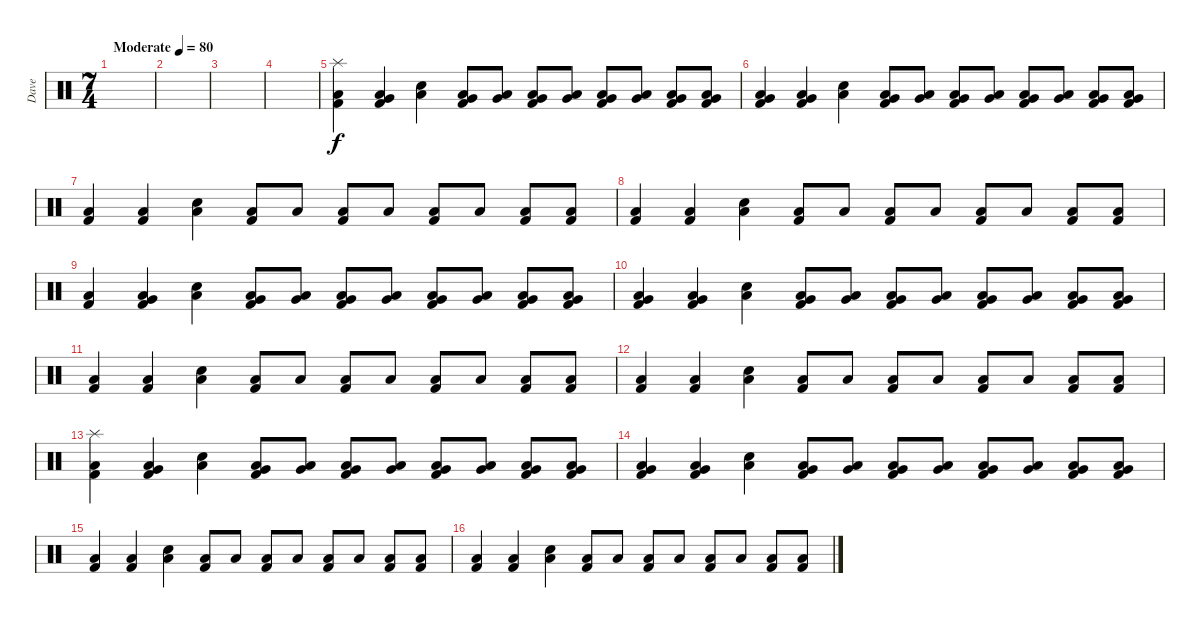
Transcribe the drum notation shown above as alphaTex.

\track ("Dave" "Dave") {instrument percussion}
\staff {score}
\articulation defaults
\ts (7 4)
\tempo (80 "Moderate")
\clef neutral
\ks c
|
|
|
|
("Splash (hit)" "Low Floor Tom (hit)" "Kick (hit) 2").4 ("Very Low Tom (hit)" "Low Floor Tom (hit)" "Kick (hit) 2").4 ("Low Floor Tom (hit)" "Electric Snare (hit)").4 ("Very Low Tom (hit)" "Low Floor Tom (hit)" "Kick (hit) 2").8 ("Very Low Tom (hit)" "Low Floor Tom (hit)").8 ("Very Low Tom (hit)" "Low Floor Tom (hit)" "Kick (hit) 2").8 ("Very Low Tom (hit)" "Low Floor Tom (hit)").8 ("Very Low Tom (hit)" "Low Floor Tom (hit)" "Kick (hit) 2").8 ("Very Low Tom (hit)" "Low Floor Tom (hit)").8 ("Very Low Tom (hit)" "Low Floor Tom (hit)" "Kick (hit) 2").8 ("Very Low Tom (hit)" "Low Floor Tom (hit)" "Kick (hit) 2").8 |
("Very Low Tom (hit)" "Low Floor Tom (hit)" "Kick (hit) 2").4 ("Very Low Tom (hit)" "Low Floor Tom (hit)" "Kick (hit) 2").4 ("Low Floor Tom (hit)" "Electric Snare (hit)").4 ("Very Low Tom (hit)" "Low Floor Tom (hit)" "Kick (hit) 2").8 ("Very Low Tom (hit)" "Low Floor Tom (hit)").8 ("Very Low Tom (hit)" "Low Floor Tom (hit)" "Kick (hit) 2").8 ("Very Low Tom (hit)" "Low Floor Tom (hit)").8 ("Very Low Tom (hit)" "Low Floor Tom (hit)" "Kick (hit) 2").8 ("Very Low Tom (hit)" "Low Floor Tom (hit)").8 ("Very Low Tom (hit)" "Low Floor Tom (hit)" "Kick (hit) 2").8 ("Very Low Tom (hit)" "Low Floor Tom (hit)" "Kick (hit) 2").8 |
("Low Floor Tom (hit)" "Kick (hit) 2").4 ("Low Floor Tom (hit)" "Kick (hit) 2").4 ("Low Floor Tom (hit)" "Electric Snare (hit)").4 ("Low Floor Tom (hit)" "Kick (hit) 2").8 "Low Floor Tom (hit)".8 ("Low Floor Tom (hit)" "Kick (hit) 2").8 "Low Floor Tom (hit)".8 ("Low Floor Tom (hit)" "Kick (hit) 2").8 "Low Floor Tom (hit)".8 ("Low Floor Tom (hit)" "Kick (hit) 2").8 ("Low Floor Tom (hit)" "Kick (hit) 2").8 |
("Low Floor Tom (hit)" "Kick (hit) 2").4 ("Low Floor Tom (hit)" "Kick (hit) 2").4 ("Low Floor Tom (hit)" "Electric Snare (hit)").4 ("Low Floor Tom (hit)" "Kick (hit) 2").8 "Low Floor Tom (hit)".8 ("Low Floor Tom (hit)" "Kick (hit) 2").8 "Low Floor Tom (hit)".8 ("Low Floor Tom (hit)" "Kick (hit) 2").8 "Low Floor Tom (hit)".8 ("Low Floor Tom (hit)" "Kick (hit) 2").8 ("Low Floor Tom (hit)" "Kick (hit) 2").8 |
("Low Floor Tom (hit)" "Kick (hit) 2").4 ("Very Low Tom (hit)" "Low Floor Tom (hit)" "Kick (hit) 2").4 ("Low Floor Tom (hit)" "Electric Snare (hit)").4 ("Very Low Tom (hit)" "Low Floor Tom (hit)" "Kick (hit) 2").8 ("Very Low Tom (hit)" "Low Floor Tom (hit)").8 ("Very Low Tom (hit)" "Low Floor Tom (hit)" "Kick (hit) 2").8 ("Very Low Tom (hit)" "Low Floor Tom (hit)").8 ("Very Low Tom (hit)" "Low Floor Tom (hit)" "Kick (hit) 2").8 ("Very Low Tom (hit)" "Low Floor Tom (hit)").8 ("Very Low Tom (hit)" "Low Floor Tom (hit)" "Kick (hit) 2").8 ("Very Low Tom (hit)" "Low Floor Tom (hit)" "Kick (hit) 2").8 |
("Very Low Tom (hit)" "Low Floor Tom (hit)" "Kick (hit) 2").4 ("Very Low Tom (hit)" "Low Floor Tom (hit)" "Kick (hit) 2").4 ("Low Floor Tom (hit)" "Electric Snare (hit)").4 ("Very Low Tom (hit)" "Low Floor Tom (hit)" "Kick (hit) 2").8 ("Very Low Tom (hit)" "Low Floor Tom (hit)").8 ("Very Low Tom (hit)" "Low Floor Tom (hit)" "Kick (hit) 2").8 ("Very Low Tom (hit)" "Low Floor Tom (hit)").8 ("Very Low Tom (hit)" "Low Floor Tom (hit)" "Kick (hit) 2").8 ("Very Low Tom (hit)" "Low Floor Tom (hit)").8 ("Very Low Tom (hit)" "Low Floor Tom (hit)" "Kick (hit) 2").8 ("Very Low Tom (hit)" "Low Floor Tom (hit)" "Kick (hit) 2").8 |
("Low Floor Tom (hit)" "Kick (hit) 2").4 ("Low Floor Tom (hit)" "Kick (hit) 2").4 ("Low Floor Tom (hit)" "Electric Snare (hit)").4 ("Low Floor Tom (hit)" "Kick (hit) 2").8 "Low Floor Tom (hit)".8 ("Low Floor Tom (hit)" "Kick (hit) 2").8 "Low Floor Tom (hit)".8 ("Low Floor Tom (hit)" "Kick (hit) 2").8 "Low Floor Tom (hit)".8 ("Low Floor Tom (hit)" "Kick (hit) 2").8 ("Low Floor Tom (hit)" "Kick (hit) 2").8 |
("Low Floor Tom (hit)" "Kick (hit) 2").4 ("Low Floor Tom (hit)" "Kick (hit) 2").4 ("Low Floor Tom (hit)" "Electric Snare (hit)").4 ("Low Floor Tom (hit)" "Kick (hit) 2").8 "Low Floor Tom (hit)".8 ("Low Floor Tom (hit)" "Kick (hit) 2").8 "Low Floor Tom (hit)".8 ("Low Floor Tom (hit)" "Kick (hit) 2").8 "Low Floor Tom (hit)".8 ("Low Floor Tom (hit)" "Kick (hit) 2").8 ("Low Floor Tom (hit)" "Kick (hit) 2").8 |
("Splash (hit)" "Low Floor Tom (hit)" "Kick (hit) 2").4 ("Very Low Tom (hit)" "Low Floor Tom (hit)" "Kick (hit) 2").4 ("Low Floor Tom (hit)" "Electric Snare (hit)").4 ("Very Low Tom (hit)" "Low Floor Tom (hit)" "Kick (hit) 2").8 ("Very Low Tom (hit)" "Low Floor Tom (hit)").8 ("Very Low Tom (hit)" "Low Floor Tom (hit)" "Kick (hit) 2").8 ("Very Low Tom (hit)" "Low Floor Tom (hit)").8 ("Very Low Tom (hit)" "Low Floor Tom (hit)" "Kick (hit) 2").8 ("Very Low Tom (hit)" "Low Floor Tom (hit)").8 ("Very Low Tom (hit)" "Low Floor Tom (hit)" "Kick (hit) 2").8 ("Very Low Tom (hit)" "Low Floor Tom (hit)" "Kick (hit) 2").8 |
("Very Low Tom (hit)" "Low Floor Tom (hit)" "Kick (hit) 2").4 ("Very Low Tom (hit)" "Low Floor Tom (hit)" "Kick (hit) 2").4 ("Low Floor Tom (hit)" "Electric Snare (hit)").4 ("Very Low Tom (hit)" "Low Floor Tom (hit)" "Kick (hit) 2").8 ("Very Low Tom (hit)" "Low Floor Tom (hit)").8 ("Very Low Tom (hit)" "Low Floor Tom (hit)" "Kick (hit) 2").8 ("Very Low Tom (hit)" "Low Floor Tom (hit)").8 ("Very Low Tom (hit)" "Low Floor Tom (hit)" "Kick (hit) 2").8 ("Very Low Tom (hit)" "Low Floor Tom (hit)").8 ("Very Low Tom (hit)" "Low Floor Tom (hit)" "Kick (hit) 2").8 ("Very Low Tom (hit)" "Low Floor Tom (hit)" "Kick (hit) 2").8 |
("Low Floor Tom (hit)" "Kick (hit) 2").4 ("Low Floor Tom (hit)" "Kick (hit) 2").4 ("Low Floor Tom (hit)" "Electric Snare (hit)").4 ("Low Floor Tom (hit)" "Kick (hit) 2").8 "Low Floor Tom (hit)".8 ("Low Floor Tom (hit)" "Kick (hit) 2").8 "Low Floor Tom (hit)".8 ("Low Floor Tom (hit)" "Kick (hit) 2").8 "Low Floor Tom (hit)".8 ("Low Floor Tom (hit)" "Kick (hit) 2").8 ("Low Floor Tom (hit)" "Kick (hit) 2").8 |
("Low Floor Tom (hit)" "Kick (hit) 2").4 ("Low Floor Tom (hit)" "Kick (hit) 2").4 ("Low Floor Tom (hit)" "Electric Snare (hit)").4 ("Low Floor Tom (hit)" "Kick (hit) 2").8 "Low Floor Tom (hit)".8 ("Low Floor Tom (hit)" "Kick (hit) 2").8 "Low Floor Tom (hit)".8 ("Low Floor Tom (hit)" "Kick (hit) 2").8 "Low Floor Tom (hit)".8 ("Low Floor Tom (hit)" "Kick (hit) 2").8 ("Low Floor Tom (hit)" "Kick (hit) 2").8
